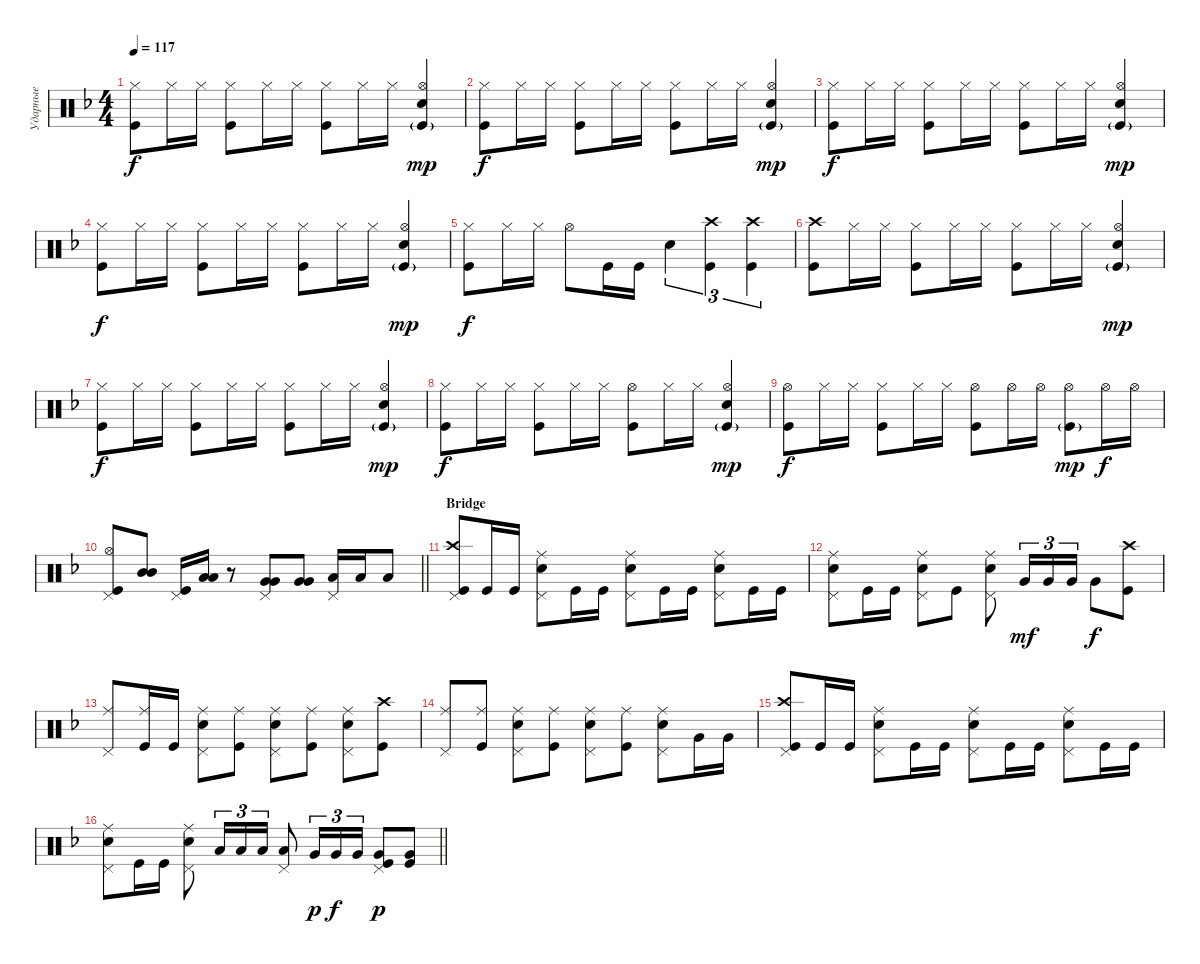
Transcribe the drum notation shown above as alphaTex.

\track ("Ударные" "Ударные") {instrument percussion}
\staff {score}
\articulation defaults
\ts (4 4)
\tempo 117
\clef neutral
\ks dminor
("Hi-Hat (closed)" "Kick (hit)").8{dy f} "Hi-Hat (closed)".16 "Hi-Hat (closed)".16 ("Hi-Hat (closed)" "Kick (hit)").8 "Hi-Hat (closed)".16 "Hi-Hat (closed)".16 ("Hi-Hat (closed)" "Kick (hit)").8 "Hi-Hat (closed)".16 "Hi-Hat (closed)".16 ("Hi-Hat (open)" "Snare (hit) 2" "Kick (hit)"{g}).4{dy mp} |
("Hi-Hat (closed)" "Kick (hit)").8{dy f} "Hi-Hat (closed)".16 "Hi-Hat (closed)".16 ("Hi-Hat (closed)" "Kick (hit)").8 "Hi-Hat (closed)".16 "Hi-Hat (closed)".16 ("Hi-Hat (closed)" "Kick (hit)").8 "Hi-Hat (closed)".16 "Hi-Hat (closed)".16 ("Hi-Hat (open)" "Snare (hit) 2" "Kick (hit)"{g}).4{dy mp} |
("Hi-Hat (closed)" "Kick (hit)").8{dy f} "Hi-Hat (closed)".16 "Hi-Hat (closed)".16 ("Hi-Hat (closed)" "Kick (hit)").8 "Hi-Hat (closed)".16 "Hi-Hat (closed)".16 ("Hi-Hat (closed)" "Kick (hit)").8 "Hi-Hat (closed)".16 "Hi-Hat (closed)".16 ("Hi-Hat (open)" "Snare (hit) 2" "Kick (hit)"{g}).4{dy mp} |
("Hi-Hat (closed)" "Kick (hit)").8{dy f} "Hi-Hat (closed)".16 "Hi-Hat (closed)".16 ("Hi-Hat (closed)" "Kick (hit)").8 "Hi-Hat (closed)".16 "Hi-Hat (closed)".16 ("Hi-Hat (closed)" "Kick (hit)").8 "Hi-Hat (closed)".16 "Hi-Hat (closed)".16 ("Hi-Hat (open)" "Snare (hit) 2" "Kick (hit)"{g}).4{dy mp} |
("Hi-Hat (closed)" "Kick (hit)").8{dy f} "Hi-Hat (closed)".16 "Hi-Hat (closed)".16 "Hi-Hat (open)".8 "Kick (hit)".16 "Kick (hit)".16 "Snare (hit) 2".4{tu (3 2)} ("Kick (hit)" "Crash high (hit)").4{tu (3 2)} ("Crash high (hit)" "Kick (hit)").4{tu (3 2)} |
("Crash high (hit)" "Kick (hit)").8 "Hi-Hat (closed)".16 "Hi-Hat (closed)".16 ("Hi-Hat (closed)" "Kick (hit)").8 "Hi-Hat (closed)".16 "Hi-Hat (closed)".16 ("Hi-Hat (closed)" "Kick (hit)").8 "Hi-Hat (closed)".16 "Hi-Hat (closed)".16 ("Hi-Hat (open)" "Snare (hit) 2" "Kick (hit)"{g}).4{dy mp} |
("Hi-Hat (closed)" "Kick (hit)").8{dy f} "Hi-Hat (closed)".16 "Hi-Hat (closed)".16 ("Hi-Hat (closed)" "Kick (hit)").8 "Hi-Hat (closed)".16 "Hi-Hat (closed)".16 ("Hi-Hat (closed)" "Kick (hit)").8 "Hi-Hat (closed)".16 "Hi-Hat (closed)".16 ("Hi-Hat (open)" "Snare (hit) 2" "Kick (hit)"{g}).4{dy mp} |
("Hi-Hat (closed)" "Kick (hit)").8{dy f} "Hi-Hat (closed)".16 "Hi-Hat (closed)".16 ("Hi-Hat (closed)" "Kick (hit)").8 "Hi-Hat (closed)".16 "Hi-Hat (closed)".16 ("Kick (hit)" "Hi-Hat (open)").8 "Hi-Hat (closed)".16 "Hi-Hat (closed)".16 ("Snare (hit) 2" "Hi-Hat (open)" "Kick (hit)"{g}).4{dy mp} |
("Kick (hit)" "Hi-Hat (open)").8{dy f} "Hi-Hat (closed)".16 "Hi-Hat (closed)".16 ("Hi-Hat (closed)" "Kick (hit)").8 "Hi-Hat (closed)".16 "Hi-Hat (closed)".16 ("Kick (hit)" "Hi-Hat (open)").8 "Hi-Hat (open)".16 "Hi-Hat (open)".16 ("Hi-Hat (open)" "Kick (hit)"{g}).8{dy mp} "Hi-Hat (open)".16{dy f} "Hi-Hat (open)".16 |
\barLineRight lightlight
("Pedal Hi-Hat (hit)" "Kick (hit)" "Hi-Hat (open)").8 ("Mid Tom (hit)" "Mid Tom (hit)").8{bd 240} ("Kick (hit)" "Pedal Hi-Hat (hit)").16 ("Low Tom (hit)" "Low Tom (hit)").16{bd 240} r.8 ("Very Low Tom (hit)" "Very Low Tom (hit)" "Pedal Hi-Hat (hit)").8{bd 240} ("Very Low Tom (hit)" "Very Low Tom (hit)").8{bd 240} ("Low Floor Tom (hit)" "Pedal Hi-Hat (hit)").16 "Low Floor Tom (hit)".16 "Low Floor Tom (hit)".8 |
\section ("" "Bridge")
("Kick (hit)" "Crash high (hit)" "Pedal Hi-Hat (hit)").8 "Kick (hit)".16 "Kick (hit)".16 ("Snare (hit) 2" "Ride (middle)" "Pedal Hi-Hat (hit)").8 "Kick (hit)".16 "Kick (hit)".16 ("Snare (hit) 2" "Ride (middle)" "Pedal Hi-Hat (hit)").8 "Kick (hit)".16 "Kick (hit)".16 ("Snare (hit) 2" "Ride (middle)" "Pedal Hi-Hat (hit)").8 "Kick (hit)".16 "Kick (hit)".16 |
("Ride (middle)" "Snare (hit) 2" "Pedal Hi-Hat (hit)").8 "Kick (hit)".16 "Kick (hit)".16 ("Snare (hit) 2" "Ride (middle)" "Pedal Hi-Hat (hit)").8 "Kick (hit)".8 ("Snare (hit) 2" "Ride (middle)" "Pedal Hi-Hat (hit)").8 "Very Low Tom (hit)".16{tu (3 2) dy mf} "Very Low Tom (hit)".16{tu (3 2)} "Very Low Tom (hit)".16{tu (3 2)} "Very Low Tom (hit)".8{dy f} ("Kick (hit)" "Crash high (hit)").8 |
("Ride (middle)" "Pedal Hi-Hat (hit)").8 ("Ride (middle)" "Kick (hit)").16 "Kick (hit)".16 ("Ride (middle)" "Snare (hit) 2" "Pedal Hi-Hat (hit)").8 ("Ride (middle)" "Kick (hit)").8 ("Ride (middle)" "Snare (hit) 2" "Pedal Hi-Hat (hit)").8 ("Ride (middle)" "Kick (hit)").8 ("Ride (middle)" "Snare (hit) 2" "Pedal Hi-Hat (hit)").8 ("Kick (hit)" "Crash high (hit)").8 |
("Ride (middle)" "Pedal Hi-Hat (hit)").8 ("Ride (middle)" "Kick (hit)").8 ("Ride (middle)" "Snare (hit) 2" "Pedal Hi-Hat (hit)").8 ("Ride (middle)" "Kick (hit)").8 ("Snare (hit) 2" "Ride (middle)" "Pedal Hi-Hat (hit)").8 ("Ride (middle)" "Kick (hit)").8 ("Snare (hit) 2" "Ride (middle)" "Pedal Hi-Hat (hit)").8 "Very Low Tom (hit)".16 "Very Low Tom (hit)".16 |
("Kick (hit)" "Crash high (hit)" "Pedal Hi-Hat (hit)").8 "Kick (hit)".16 "Kick (hit)".16 ("Snare (hit) 2" "Ride (middle)" "Pedal Hi-Hat (hit)").8 "Kick (hit)".16 "Kick (hit)".16 ("Snare (hit) 2" "Ride (middle)" "Pedal Hi-Hat (hit)").8 "Kick (hit)".16 "Kick (hit)".16 ("Snare (hit) 2" "Ride (middle)" "Pedal Hi-Hat (hit)").8 "Kick (hit)".16 "Kick (hit)".16 |
\barLineRight lightlight
("Ride (middle)" "Snare (hit) 2" "Pedal Hi-Hat (hit)").8 "Kick (hit)".16 "Kick (hit)".16 ("Snare (hit) 2" "Ride (middle)" "Pedal Hi-Hat (hit)").8 "Low Tom (hit)".16{tu (3 2)} "Low Tom (hit)".16{tu (3 2)} "Low Tom (hit)".16{tu (3 2)} ("Low Tom (hit)" "Pedal Hi-Hat (hit)").8 "Very Low Tom (hit)".16{tu (3 2) dy p} "Very Low Tom (hit)".16{tu (3 2) dy f} "Very Low Tom (hit)".16{tu (3 2)} ("Kick (hit)" "Pedal Hi-Hat (hit)" "Very Low Tom (hit)").8{dy p} ("Kick (hit)" "Very Low Tom (hit)").8
